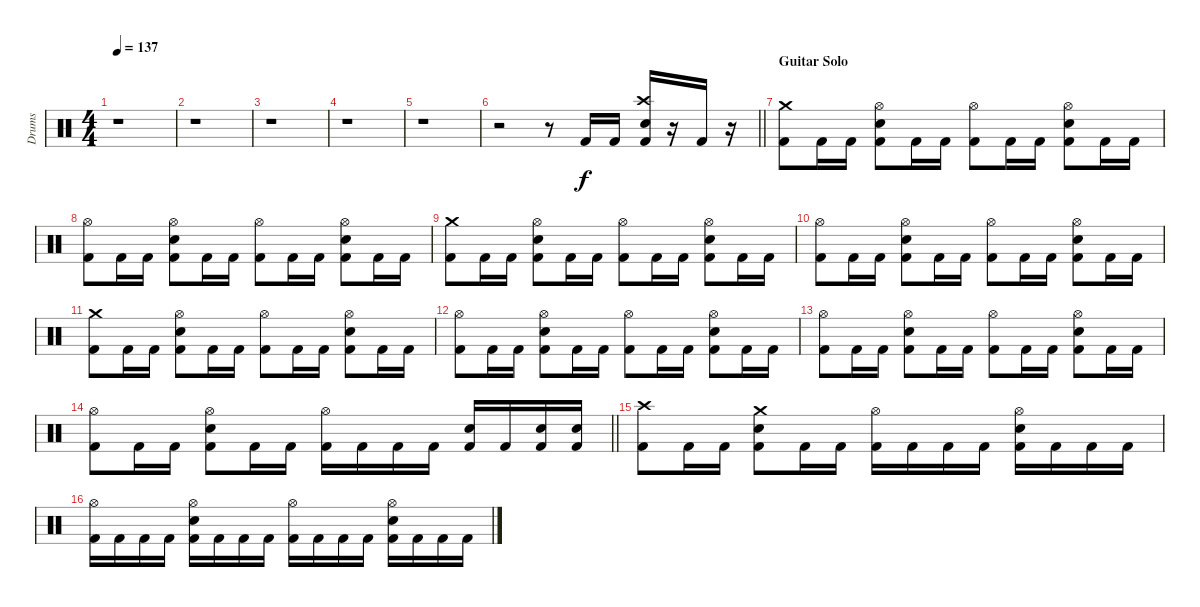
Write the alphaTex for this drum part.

\track ("Drums" "Drums") {instrument percussion}
\staff {score}
\articulation defaults
\ts (4 4)
\tempo 137
\clef neutral
\ks c
r.1{dy f} |
r.1 |
r.1 |
r.1 |
r.1 |
\barLineRight lightlight
r.2 r.8 "Kick (hit) 2".16 "Kick (hit) 2".16 ("Crash high (hit)" "Electric Snare (hit)" "Kick (hit) 2").16 r.16 "Kick (hit) 2".16 r.16 |
\section ("" "Guitar Solo")
("Crash medium (hit)" "Kick (hit) 2").8 "Kick (hit) 2".16 "Kick (hit) 2".16 ("Hi-Hat (open)" "Electric Snare (hit)" "Kick (hit) 2").8 "Kick (hit) 2".16 "Kick (hit) 2".16 ("Hi-Hat (open)" "Kick (hit) 2").8 "Kick (hit) 2".16 "Kick (hit) 2".16 ("Hi-Hat (open)" "Electric Snare (hit)" "Kick (hit) 2").8 "Kick (hit) 2".16 "Kick (hit) 2".16 |
("Hi-Hat (open)" "Kick (hit) 2").8 "Kick (hit) 2".16 "Kick (hit) 2".16 ("Hi-Hat (open)" "Electric Snare (hit)" "Kick (hit) 2").8 "Kick (hit) 2".16 "Kick (hit) 2".16 ("Hi-Hat (open)" "Kick (hit) 2").8 "Kick (hit) 2".16 "Kick (hit) 2".16 ("Hi-Hat (open)" "Electric Snare (hit)" "Kick (hit) 2").8 "Kick (hit) 2".16 "Kick (hit) 2".16 |
("Crash medium (hit)" "Kick (hit) 2").8 "Kick (hit) 2".16 "Kick (hit) 2".16 ("Hi-Hat (open)" "Electric Snare (hit)" "Kick (hit) 2").8 "Kick (hit) 2".16 "Kick (hit) 2".16 ("Hi-Hat (open)" "Kick (hit) 2").8 "Kick (hit) 2".16 "Kick (hit) 2".16 ("Hi-Hat (open)" "Electric Snare (hit)" "Kick (hit) 2").8 "Kick (hit) 2".16 "Kick (hit) 2".16 |
("Hi-Hat (open)" "Kick (hit) 2").8 "Kick (hit) 2".16 "Kick (hit) 2".16 ("Hi-Hat (open)" "Electric Snare (hit)" "Kick (hit) 2").8 "Kick (hit) 2".16 "Kick (hit) 2".16 ("Hi-Hat (open)" "Kick (hit) 2").8 "Kick (hit) 2".16 "Kick (hit) 2".16 ("Hi-Hat (open)" "Electric Snare (hit)" "Kick (hit) 2").8 "Kick (hit) 2".16 "Kick (hit) 2".16 |
("Crash medium (hit)" "Kick (hit) 2").8 "Kick (hit) 2".16 "Kick (hit) 2".16 ("Hi-Hat (open)" "Electric Snare (hit)" "Kick (hit) 2").8 "Kick (hit) 2".16 "Kick (hit) 2".16 ("Hi-Hat (open)" "Kick (hit) 2").8 "Kick (hit) 2".16 "Kick (hit) 2".16 ("Hi-Hat (open)" "Electric Snare (hit)" "Kick (hit) 2").8 "Kick (hit) 2".16 "Kick (hit) 2".16 |
("Hi-Hat (open)" "Kick (hit) 2").8 "Kick (hit) 2".16 "Kick (hit) 2".16 ("Hi-Hat (open)" "Electric Snare (hit)" "Kick (hit) 2").8 "Kick (hit) 2".16 "Kick (hit) 2".16 ("Hi-Hat (open)" "Kick (hit) 2").8 "Kick (hit) 2".16 "Kick (hit) 2".16 ("Hi-Hat (open)" "Electric Snare (hit)" "Kick (hit) 2").8 "Kick (hit) 2".16 "Kick (hit) 2".16 |
("Hi-Hat (open)" "Kick (hit) 2").8 "Kick (hit) 2".16 "Kick (hit) 2".16 ("Hi-Hat (open)" "Electric Snare (hit)" "Kick (hit) 2").8 "Kick (hit) 2".16 "Kick (hit) 2".16 ("Hi-Hat (open)" "Kick (hit) 2").8 "Kick (hit) 2".16 "Kick (hit) 2".16 ("Hi-Hat (open)" "Electric Snare (hit)" "Kick (hit) 2").8 "Kick (hit) 2".16 "Kick (hit) 2".16 |
\barLineRight lightlight
("Hi-Hat (open)" "Kick (hit) 2").8 "Kick (hit) 2".16 "Kick (hit) 2".16 ("Hi-Hat (open)" "Electric Snare (hit)" "Kick (hit) 2").8 "Kick (hit) 2".16 "Kick (hit) 2".16 ("Hi-Hat (open)" "Kick (hit) 2").16 "Kick (hit) 2".16 "Kick (hit) 2".16 "Kick (hit) 2".16 ("Electric Snare (hit)" "Kick (hit) 2").16 "Kick (hit) 2".16 ("Electric Snare (hit)" "Kick (hit) 2").16 ("Electric Snare (hit)" "Kick (hit) 2").16 |
\section ("" "")
("Crash high (hit)" "Kick (hit) 2").8 "Kick (hit) 2".16 "Kick (hit) 2".16 ("Crash medium (hit)" "Electric Snare (hit)" "Kick (hit) 2").8 "Kick (hit) 2".16 "Kick (hit) 2".16 ("Hi-Hat (open)" "Kick (hit) 2").16 "Kick (hit) 2".16 "Kick (hit) 2".16 "Kick (hit) 2".16 ("Hi-Hat (open)" "Electric Snare (hit)" "Kick (hit) 2").16 "Kick (hit) 2".16 "Kick (hit) 2".16 "Kick (hit) 2".16 |
("Hi-Hat (open)" "Kick (hit) 2").16 "Kick (hit) 2".16 "Kick (hit) 2".16 "Kick (hit) 2".16 ("Hi-Hat (open)" "Electric Snare (hit)" "Kick (hit) 2").16 "Kick (hit) 2".16 "Kick (hit) 2".16 "Kick (hit) 2".16 ("Hi-Hat (open)" "Kick (hit) 2").16 "Kick (hit) 2".16 "Kick (hit) 2".16 "Kick (hit) 2".16 ("Hi-Hat (open)" "Electric Snare (hit)" "Kick (hit) 2").16 "Kick (hit) 2".16 "Kick (hit) 2".16 "Kick (hit) 2".16
